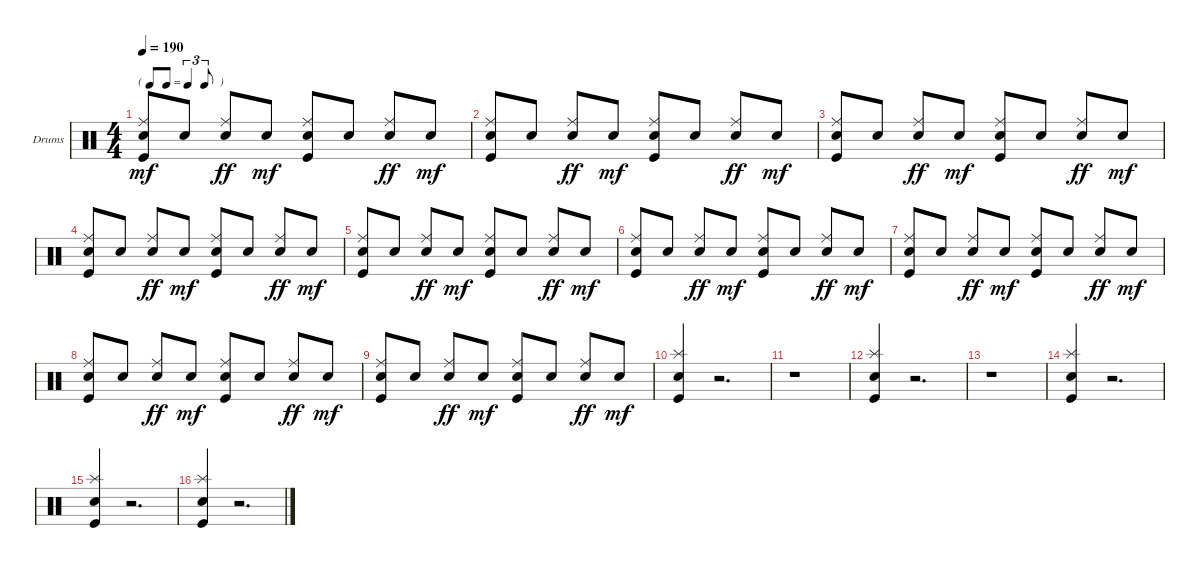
\defaultSystemsLayout 4
\bracketExtendMode groupsimilarinstruments
\firstSystemTrackNameOrientation horizontal
\otherSystemsTrackNameOrientation horizontal
\track ("Drumkit" "Drums") {instrument percussion}
\staff {score}
\articulation defaults
\ts (4 4)
\tf triplet8th
\tempo 190
\clef neutral
\ks c
("Kick (hit)" "Snare (hit) 2" "Ride (middle)").8{dy mf beam invert} "Snare (hit) 2".8 ("Snare (hit) 2" "Ride (middle)").8{dy ff beam invert} "Snare (hit) 2".8{dy mf} ("Kick (hit)" "Snare (hit) 2" "Ride (middle)").8{beam invert} "Snare (hit) 2".8 ("Snare (hit) 2" "Ride (middle)").8{dy ff beam invert} "Snare (hit) 2".8{dy mf} |
("Kick (hit)" "Snare (hit) 2" "Ride (middle)").8{beam invert} "Snare (hit) 2".8 ("Snare (hit) 2" "Ride (middle)").8{dy ff beam invert} "Snare (hit) 2".8{dy mf} ("Kick (hit)" "Snare (hit) 2" "Ride (middle)").8{beam invert} "Snare (hit) 2".8 ("Snare (hit) 2" "Ride (middle)").8{dy ff beam invert} "Snare (hit) 2".8{dy mf} |
("Kick (hit)" "Snare (hit) 2" "Ride (middle)").8{beam invert} "Snare (hit) 2".8 ("Snare (hit) 2" "Ride (middle)").8{dy ff beam invert} "Snare (hit) 2".8{dy mf} ("Kick (hit)" "Snare (hit) 2" "Ride (middle)").8{beam invert} "Snare (hit) 2".8 ("Snare (hit) 2" "Ride (middle)").8{dy ff beam invert} "Snare (hit) 2".8{dy mf} |
("Kick (hit)" "Snare (hit) 2" "Ride (middle)").8{beam invert} "Snare (hit) 2".8 ("Snare (hit) 2" "Ride (middle)").8{dy ff beam invert} "Snare (hit) 2".8{dy mf} ("Kick (hit)" "Snare (hit) 2" "Ride (middle)").8{beam invert} "Snare (hit) 2".8 ("Snare (hit) 2" "Ride (middle)").8{dy ff beam invert} "Snare (hit) 2".8{dy mf} |
("Kick (hit)" "Snare (hit) 2" "Ride (middle)").8{beam invert} "Snare (hit) 2".8 ("Snare (hit) 2" "Ride (middle)").8{dy ff beam invert} "Snare (hit) 2".8{dy mf} ("Kick (hit)" "Snare (hit) 2" "Ride (middle)").8{beam invert} "Snare (hit) 2".8 ("Snare (hit) 2" "Ride (middle)").8{dy ff beam invert} "Snare (hit) 2".8{dy mf} |
("Kick (hit)" "Snare (hit) 2" "Ride (middle)").8{beam invert} "Snare (hit) 2".8 ("Snare (hit) 2" "Ride (middle)").8{dy ff beam invert} "Snare (hit) 2".8{dy mf} ("Kick (hit)" "Snare (hit) 2" "Ride (middle)").8{beam invert} "Snare (hit) 2".8 ("Snare (hit) 2" "Ride (middle)").8{dy ff beam invert} "Snare (hit) 2".8{dy mf} |
("Kick (hit)" "Snare (hit) 2" "Ride (middle)").8{beam invert} "Snare (hit) 2".8 ("Snare (hit) 2" "Ride (middle)").8{dy ff beam invert} "Snare (hit) 2".8{dy mf} ("Kick (hit)" "Snare (hit) 2" "Ride (middle)").8{beam invert} "Snare (hit) 2".8 ("Snare (hit) 2" "Ride (middle)").8{dy ff beam invert} "Snare (hit) 2".8{dy mf} |
("Kick (hit)" "Snare (hit) 2" "Ride (middle)").8{beam invert} "Snare (hit) 2".8 ("Snare (hit) 2" "Ride (middle)").8{dy ff beam invert} "Snare (hit) 2".8{dy mf} ("Kick (hit)" "Snare (hit) 2" "Ride (middle)").8{beam invert} "Snare (hit) 2".8 ("Snare (hit) 2" "Ride (middle)").8{dy ff beam invert} "Snare (hit) 2".8{dy mf} |
("Kick (hit)" "Snare (hit) 2" "Ride (middle)").8{beam invert} "Snare (hit) 2".8 ("Snare (hit) 2" "Ride (middle)").8{dy ff beam invert} "Snare (hit) 2".8{dy mf} ("Kick (hit)" "Snare (hit) 2" "Ride (middle)").8{beam invert} "Snare (hit) 2".8 ("Snare (hit) 2" "Ride (middle)").8{dy ff beam invert} "Snare (hit) 2".8{dy mf} |
("Kick (hit)" "Snare (hit) 2" "Splash (hit)").4{beam invert} r.2{d} |
r.1 |
("Kick (hit)" "Snare (hit) 2" "Splash (hit)").4{beam invert} r.2{d} |
r.1 |
("Kick (hit)" "Snare (hit) 2" "Splash (hit)").4{beam invert} r.2{d} |
("Kick (hit)" "Snare (hit) 2" "Splash (hit)").4{beam invert} r.2{d} |
("Kick (hit)" "Snare (hit) 2" "Splash (hit)").4{beam invert} r.2{d}
